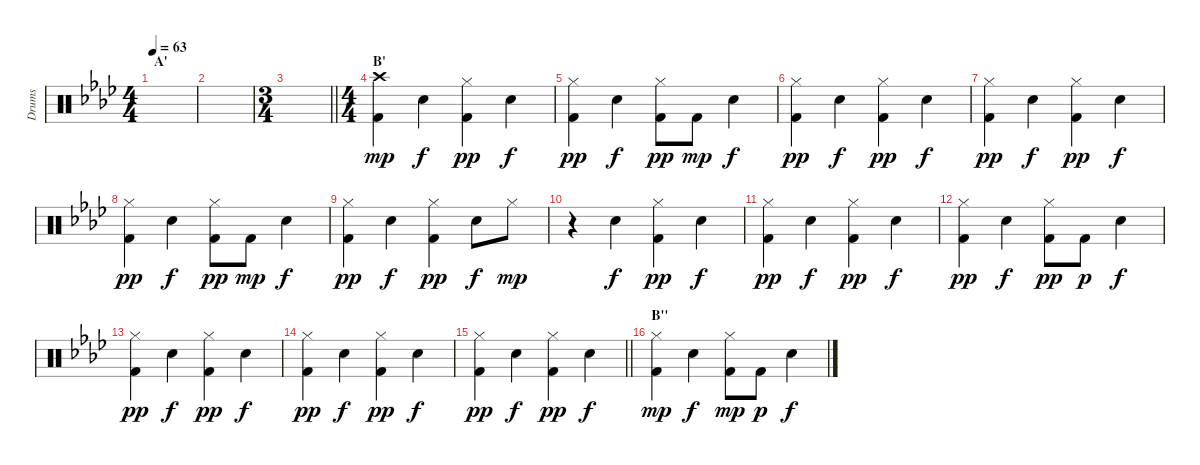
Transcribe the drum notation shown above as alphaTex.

\track ("Drums" "Drums") {instrument percussion}
\staff {score}
\articulation defaults
\ts (4 4)
\section ("" "A'")
\tempo 63
\clef neutral
\ks fminor
|
|
\ts (3 4)
\barLineRight lightlight
|
\ts (4 4)
\section ("" "B'")
("Crash high (hit)" "Kick (hit) 2").4{dy mp} "Electric Snare (hit)".4{dy f} ("Hi-Hat (closed)" "Kick (hit) 2").4{dy pp} "Electric Snare (hit)".4{dy f} |
("Hi-Hat (closed)" "Kick (hit) 2").4{dy pp} "Electric Snare (hit)".4{dy f} ("Hi-Hat (closed)" "Kick (hit) 2").8{dy pp} "Kick (hit) 2".8{dy mp} "Electric Snare (hit)".4{dy f} |
("Hi-Hat (closed)" "Kick (hit) 2").4{dy pp} "Electric Snare (hit)".4{dy f} ("Hi-Hat (closed)" "Kick (hit) 2").4{dy pp} "Electric Snare (hit)".4{dy f} |
("Hi-Hat (closed)" "Kick (hit) 2").4{dy pp} "Electric Snare (hit)".4{dy f} ("Hi-Hat (closed)" "Kick (hit) 2").4{dy pp} "Electric Snare (hit)".4{dy f} |
("Hi-Hat (closed)" "Kick (hit) 2").4{dy pp} "Electric Snare (hit)".4{dy f} ("Hi-Hat (closed)" "Kick (hit) 2").8{dy pp} "Kick (hit) 2".8{dy mp} "Electric Snare (hit)".4{dy f} |
("Hi-Hat (closed)" "Kick (hit) 2").4{dy pp} "Electric Snare (hit)".4{dy f} ("Hi-Hat (closed)" "Kick (hit) 2").4{dy pp} "Electric Snare (hit)".8{dy f} "Hi-Hat (closed)".8{dy mp} |
r.4 "Electric Snare (hit)".4{dy f} ("Hi-Hat (closed)" "Kick (hit) 2").4{dy pp} "Electric Snare (hit)".4{dy f} |
("Hi-Hat (closed)" "Kick (hit) 2").4{dy pp} "Electric Snare (hit)".4{dy f} ("Hi-Hat (closed)" "Kick (hit) 2").4{dy pp} "Electric Snare (hit)".4{dy f} |
("Hi-Hat (closed)" "Kick (hit) 2").4{dy pp} "Electric Snare (hit)".4{dy f} ("Hi-Hat (closed)" "Kick (hit) 2").8{dy pp} "Kick (hit) 2".8{dy p} "Electric Snare (hit)".4{dy f} |
("Hi-Hat (closed)" "Kick (hit) 2").4{dy pp} "Electric Snare (hit)".4{dy f} ("Hi-Hat (closed)" "Kick (hit) 2").4{dy pp} "Electric Snare (hit)".4{dy f} |
("Hi-Hat (closed)" "Kick (hit) 2").4{dy pp} "Electric Snare (hit)".4{dy f} ("Hi-Hat (closed)" "Kick (hit) 2").4{dy pp} "Electric Snare (hit)".4{dy f} |
\barLineRight lightlight
("Hi-Hat (closed)" "Kick (hit) 2").4{dy pp} "Electric Snare (hit)".4{dy f} ("Hi-Hat (closed)" "Kick (hit) 2").4{dy pp} "Electric Snare (hit)".4{dy f} |
\section ("" "B''")
("Hi-Hat (closed)" "Kick (hit) 2").4{dy mp} "Electric Snare (hit)".4{dy f} ("Hi-Hat (closed)" "Kick (hit) 2").8{dy mp} "Kick (hit) 2".8{dy p} "Electric Snare (hit)".4{dy f}
